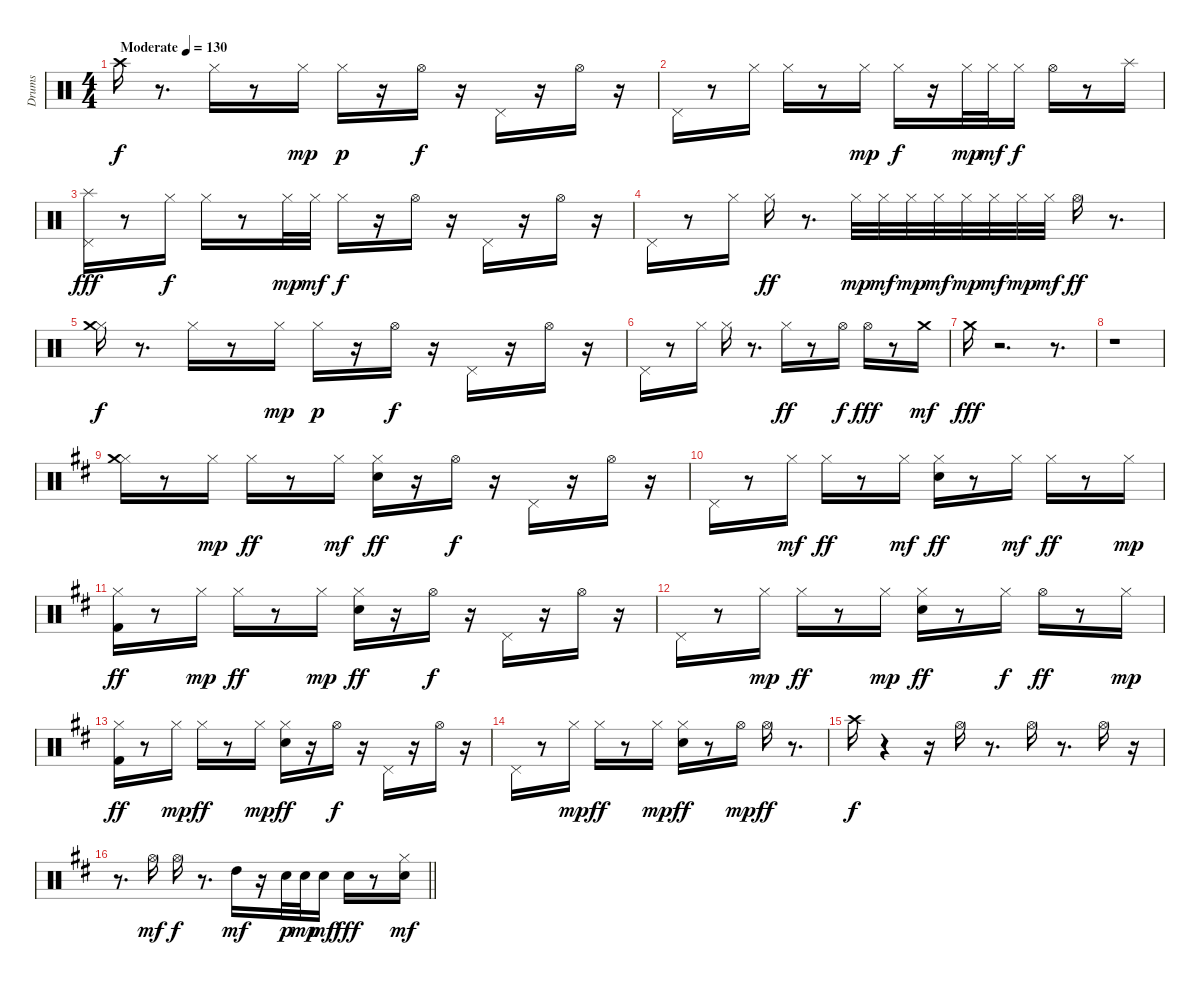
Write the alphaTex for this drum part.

\track ("Drums" "Drums") {instrument percussion}
\staff {score}
\articulation defaults
\ts (4 4)
\tempo (130 "Moderate")
\clef neutral
\ks c "Crash high (hit)".16{dy f}
r.8{d} "Hi-Hat (closed)".16 r.8 "Hi-Hat (closed)".16{dy mp} "Hi-Hat (closed)".16{dy p} r.16 "Hi-Hat (open)".16{dy f} r.16 "Pedal Hi-Hat (hit)".16 r.16 "Hi-Hat (open)".16 r.16 |
"Pedal Hi-Hat (hit)".16 r.8 "Hi-Hat (closed)".16 "Hi-Hat (closed)".16 r.8 "Hi-Hat (closed)".16{dy mp} "Hi-Hat (closed)".16{dy f} r.16 "Hi-Hat (closed)".32{dy mp} "Hi-Hat (closed)".32{dy mf} "Hi-Hat (closed)".16{dy f} "Hi-Hat (open)".16 r.8 "Splash (hit)".16 |
("Pedal Hi-Hat (hit)" "Splash (hit)").16{dy fff} r.8 "Hi-Hat (closed)".16{dy f} "Hi-Hat (closed)".16 r.8 "Hi-Hat (closed)".32{dy mp} "Hi-Hat (closed)".32{dy mf} "Hi-Hat (closed)".16{dy f} r.16 "Hi-Hat (open)".16 r.16 "Pedal Hi-Hat (hit)".16 r.16 "Hi-Hat (open)".16 r.16 |
"Pedal Hi-Hat (hit)".16 r.8 "Hi-Hat (closed)".16 "Hi-Hat (closed)".16{dy ff} r.8{d} "Hi-Hat (closed)".32{dy mp} "Hi-Hat (closed)".32{dy mf} "Hi-Hat (closed)".32{dy mp} "Hi-Hat (closed)".32{dy mf} "Hi-Hat (closed)".32{dy mp} "Hi-Hat (closed)".32{dy mf} "Hi-Hat (closed)".32{dy mp} "Hi-Hat (closed)".32{dy mf} "Hi-Hat (open)".16{dy ff} r.8{d} |
("Hi-Hat (closed)" "Crash medium (hit)").16{dy f} r.8{d} "Hi-Hat (closed)".16 r.8 "Hi-Hat (closed)".16{dy mp} "Hi-Hat (closed)".16{dy p} r.16 "Hi-Hat (open)".16{dy f} r.16 "Pedal Hi-Hat (hit)".16 r.16 "Hi-Hat (open)".16 r.16 |
"Pedal Hi-Hat (hit)".16 r.8 "Hi-Hat (closed)".16 "Hi-Hat (closed)".16 r.8{d} "Hi-Hat (closed)".16{dy ff} r.8 "Hi-Hat (open)".16{dy f} "Hi-Hat (open)".16{dy fff} r.8 "Crash medium (hit)".16{dy mf} |
"Crash medium (hit)".16{dy fff} r.2{d} r.8{d} |
r.1 |
\ks d
("Hi-Hat (closed)" "Crash medium (hit)").16 r.8 "Hi-Hat (closed)".16{dy mp} "Hi-Hat (closed)".16{dy ff} r.8 "Hi-Hat (closed)".16{dy mf} ("Hi-Hat (closed)" "Electric Snare (hit)").16{dy ff} r.16 "Hi-Hat (open)".16{dy f} r.16 "Pedal Hi-Hat (hit)".16 r.16 "Hi-Hat (open)".16 r.16 |
"Pedal Hi-Hat (hit)".16 r.8 "Hi-Hat (closed)".16{dy mf} "Hi-Hat (closed)".16{dy ff} r.8 "Hi-Hat (closed)".16{dy mf} ("Hi-Hat (closed)" "Electric Snare (hit)").16{dy ff} r.8 "Hi-Hat (closed)".16{dy mf} "Hi-Hat (closed)".16{dy ff} r.8 "Hi-Hat (closed)".16{dy mp} |
("Hi-Hat (closed)" "Kick (hit) 2").16{dy ff} r.8 "Hi-Hat (closed)".16{dy mp} "Hi-Hat (closed)".16{dy ff} r.8 "Hi-Hat (closed)".16{dy mp} ("Hi-Hat (closed)" "Electric Snare (hit)").16{dy ff} r.16 "Hi-Hat (open)".16{dy f} r.16 "Pedal Hi-Hat (hit)".16 r.16 "Hi-Hat (open)".16 r.16 |
"Pedal Hi-Hat (hit)".16 r.8 "Hi-Hat (closed)".16{dy mp} "Hi-Hat (closed)".16{dy ff} r.8 "Hi-Hat (closed)".16{dy mp} ("Hi-Hat (closed)" "Electric Snare (hit)").16{dy ff} r.8 "Hi-Hat (closed)".16{dy f} "Hi-Hat (open)".16{dy ff} r.8 "Hi-Hat (closed)".16{dy mp} |
("Hi-Hat (closed)" "Kick (hit) 2").16{dy ff} r.8 "Hi-Hat (closed)".16{dy mp} "Hi-Hat (closed)".16{dy ff} r.8 "Hi-Hat (closed)".16{dy mp} ("Hi-Hat (closed)" "Electric Snare (hit)").16{dy ff} r.16 "Hi-Hat (open)".16{dy f} r.16 "Pedal Hi-Hat (hit)".16 r.16 "Hi-Hat (open)".16 r.16 |
"Pedal Hi-Hat (hit)".16 r.8 "Hi-Hat (closed)".16{dy mp} "Hi-Hat (closed)".16{dy ff} r.8 "Hi-Hat (closed)".16{dy mp} ("Hi-Hat (closed)" "Electric Snare (hit)").16{dy ff} r.8 "Hi-Hat (open)".16{dy mp} "Hi-Hat (open)".16{dy ff} r.8{d} |
"Crash high (hit)".16{dy f} r.4 r.16 "Hi-Hat (open)".16 r.8{d} "Hi-Hat (open)".16 r.8{d} "Hi-Hat (open)".16 r.16 |
\barLineRight lightlight
r.8{d} "Hi-Hat (open)".16{dy mf} "Hi-Hat (open)".16{dy f} r.8{d} "High Tom (hit)".16{dy mf} r.16 "Electric Snare (hit)".32{dy p} "Electric Snare (hit)".32{dy mp} "Electric Snare (hit)".16{dy mf} "Electric Snare (hit)".16{dy fff} r.8 ("Hi-Hat (closed)" "Electric Snare (hit)").16{dy mf}
